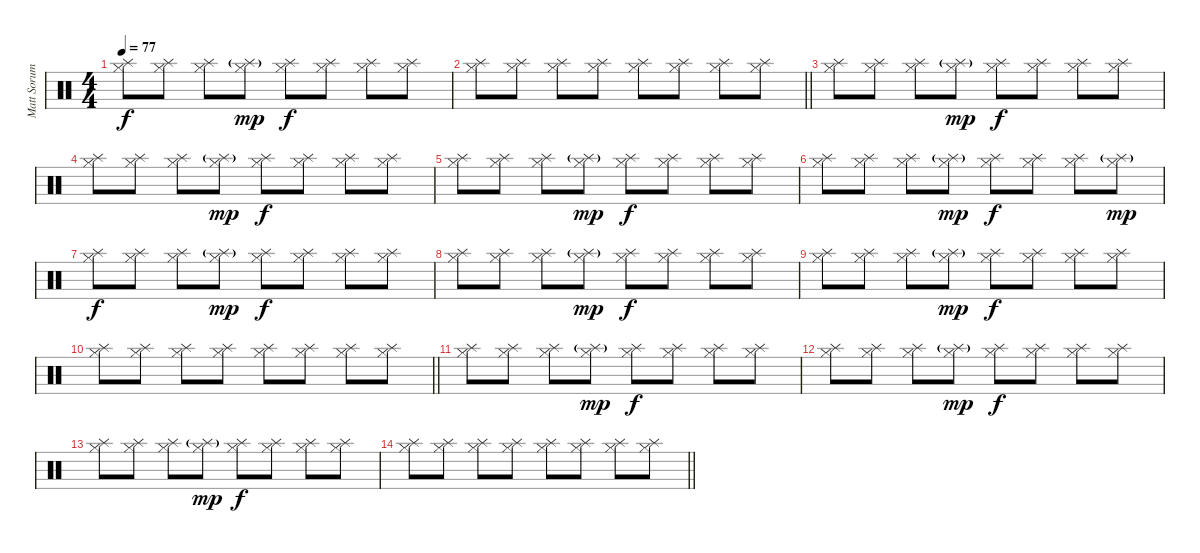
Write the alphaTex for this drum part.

\track ("Matt Sorum (Drums)" "Matt Sorum") {instrument percussion}
\staff {score}
\articulation defaults
\ts (4 4)
\tempo 77
\clef neutral
\ks c
("Hi-Hat (closed)" "Splash (hit)").8{dy f} ("Hi-Hat (closed)" "Splash (hit)").8 ("Hi-Hat (closed)" "Splash (hit)").8 ("Hi-Hat (closed)" "Splash (hit)"{g}).8{dy mp} ("Hi-Hat (closed)" "Splash (hit)").8{dy f} ("Hi-Hat (closed)" "Splash (hit)").8 ("Hi-Hat (closed)" "Splash (hit)").8 ("Hi-Hat (closed)" "Splash (hit)").8 |
\barLineRight lightlight
("Hi-Hat (closed)" "Splash (hit)").8 ("Hi-Hat (closed)" "Splash (hit)").8 ("Hi-Hat (closed)" "Splash (hit)").8 ("Hi-Hat (closed)" "Splash (hit)").8 ("Hi-Hat (closed)" "Splash (hit)").8 ("Hi-Hat (closed)" "Splash (hit)").8 ("Hi-Hat (closed)" "Splash (hit)").8 ("Hi-Hat (closed)" "Splash (hit)").8 |
("Hi-Hat (closed)" "Splash (hit)").8 ("Hi-Hat (closed)" "Splash (hit)").8 ("Hi-Hat (closed)" "Splash (hit)").8 ("Hi-Hat (closed)" "Splash (hit)"{g}).8{dy mp} ("Hi-Hat (closed)" "Splash (hit)").8{dy f} ("Hi-Hat (closed)" "Splash (hit)").8 ("Hi-Hat (closed)" "Splash (hit)").8 ("Hi-Hat (closed)" "Splash (hit)").8 |
("Hi-Hat (closed)" "Splash (hit)").8 ("Hi-Hat (closed)" "Splash (hit)").8 ("Hi-Hat (closed)" "Splash (hit)").8 ("Hi-Hat (closed)" "Splash (hit)"{g}).8{dy mp} ("Hi-Hat (closed)" "Splash (hit)").8{dy f} ("Hi-Hat (closed)" "Splash (hit)").8 ("Hi-Hat (closed)" "Splash (hit)").8 ("Hi-Hat (closed)" "Splash (hit)").8 |
("Hi-Hat (closed)" "Splash (hit)").8 ("Hi-Hat (closed)" "Splash (hit)").8 ("Hi-Hat (closed)" "Splash (hit)").8 ("Hi-Hat (closed)" "Splash (hit)"{g}).8{dy mp} ("Hi-Hat (closed)" "Splash (hit)").8{dy f} ("Hi-Hat (closed)" "Splash (hit)").8 ("Hi-Hat (closed)" "Splash (hit)").8 ("Hi-Hat (closed)" "Splash (hit)").8 |
("Hi-Hat (closed)" "Splash (hit)").8 ("Hi-Hat (closed)" "Splash (hit)").8 ("Hi-Hat (closed)" "Splash (hit)").8 ("Hi-Hat (closed)" "Splash (hit)"{g}).8{dy mp} ("Hi-Hat (closed)" "Splash (hit)").8{dy f} ("Hi-Hat (closed)" "Splash (hit)").8 ("Hi-Hat (closed)" "Splash (hit)").8 ("Hi-Hat (closed)" "Splash (hit)"{g}).8{dy mp} |
("Hi-Hat (closed)" "Splash (hit)").8{dy f} ("Hi-Hat (closed)" "Splash (hit)").8 ("Hi-Hat (closed)" "Splash (hit)").8 ("Hi-Hat (closed)" "Splash (hit)"{g}).8{dy mp} ("Hi-Hat (closed)" "Splash (hit)").8{dy f} ("Hi-Hat (closed)" "Splash (hit)").8 ("Hi-Hat (closed)" "Splash (hit)").8 ("Hi-Hat (closed)" "Splash (hit)").8 |
("Hi-Hat (closed)" "Splash (hit)").8 ("Hi-Hat (closed)" "Splash (hit)").8 ("Hi-Hat (closed)" "Splash (hit)").8 ("Hi-Hat (closed)" "Splash (hit)"{g}).8{dy mp} ("Hi-Hat (closed)" "Splash (hit)").8{dy f} ("Hi-Hat (closed)" "Splash (hit)").8 ("Hi-Hat (closed)" "Splash (hit)").8 ("Hi-Hat (closed)" "Splash (hit)").8 |
("Hi-Hat (closed)" "Splash (hit)").8 ("Hi-Hat (closed)" "Splash (hit)").8 ("Hi-Hat (closed)" "Splash (hit)").8 ("Hi-Hat (closed)" "Splash (hit)"{g}).8{dy mp} ("Hi-Hat (closed)" "Splash (hit)").8{dy f} ("Hi-Hat (closed)" "Splash (hit)").8 ("Hi-Hat (closed)" "Splash (hit)").8 ("Hi-Hat (closed)" "Splash (hit)").8 |
\barLineRight lightlight
("Hi-Hat (closed)" "Splash (hit)").8 ("Hi-Hat (closed)" "Splash (hit)").8 ("Hi-Hat (closed)" "Splash (hit)").8 ("Hi-Hat (closed)" "Splash (hit)").8 ("Hi-Hat (closed)" "Splash (hit)").8 ("Hi-Hat (closed)" "Splash (hit)").8 ("Hi-Hat (closed)" "Splash (hit)").8 ("Hi-Hat (closed)" "Splash (hit)").8 |
("Hi-Hat (closed)" "Splash (hit)").8 ("Hi-Hat (closed)" "Splash (hit)").8 ("Hi-Hat (closed)" "Splash (hit)").8 ("Hi-Hat (closed)" "Splash (hit)"{g}).8{dy mp} ("Hi-Hat (closed)" "Splash (hit)").8{dy f} ("Hi-Hat (closed)" "Splash (hit)").8 ("Hi-Hat (closed)" "Splash (hit)").8 ("Hi-Hat (closed)" "Splash (hit)").8 |
("Hi-Hat (closed)" "Splash (hit)").8 ("Hi-Hat (closed)" "Splash (hit)").8 ("Hi-Hat (closed)" "Splash (hit)").8 ("Hi-Hat (closed)" "Splash (hit)"{g}).8{dy mp} ("Hi-Hat (closed)" "Splash (hit)").8{dy f} ("Hi-Hat (closed)" "Splash (hit)").8 ("Hi-Hat (closed)" "Splash (hit)").8 ("Hi-Hat (closed)" "Splash (hit)").8 |
("Hi-Hat (closed)" "Splash (hit)").8 ("Hi-Hat (closed)" "Splash (hit)").8 ("Hi-Hat (closed)" "Splash (hit)").8 ("Hi-Hat (closed)" "Splash (hit)"{g}).8{dy mp} ("Hi-Hat (closed)" "Splash (hit)").8{dy f} ("Hi-Hat (closed)" "Splash (hit)").8 ("Hi-Hat (closed)" "Splash (hit)").8 ("Hi-Hat (closed)" "Splash (hit)").8 |
\barLineRight lightlight
("Hi-Hat (closed)" "Splash (hit)").8 ("Hi-Hat (closed)" "Splash (hit)").8 ("Hi-Hat (closed)" "Splash (hit)").8 ("Hi-Hat (closed)" "Splash (hit)").8 ("Hi-Hat (closed)" "Splash (hit)").8 ("Hi-Hat (closed)" "Splash (hit)").8 ("Hi-Hat (closed)" "Splash (hit)").8 ("Hi-Hat (closed)" "Splash (hit)").8
